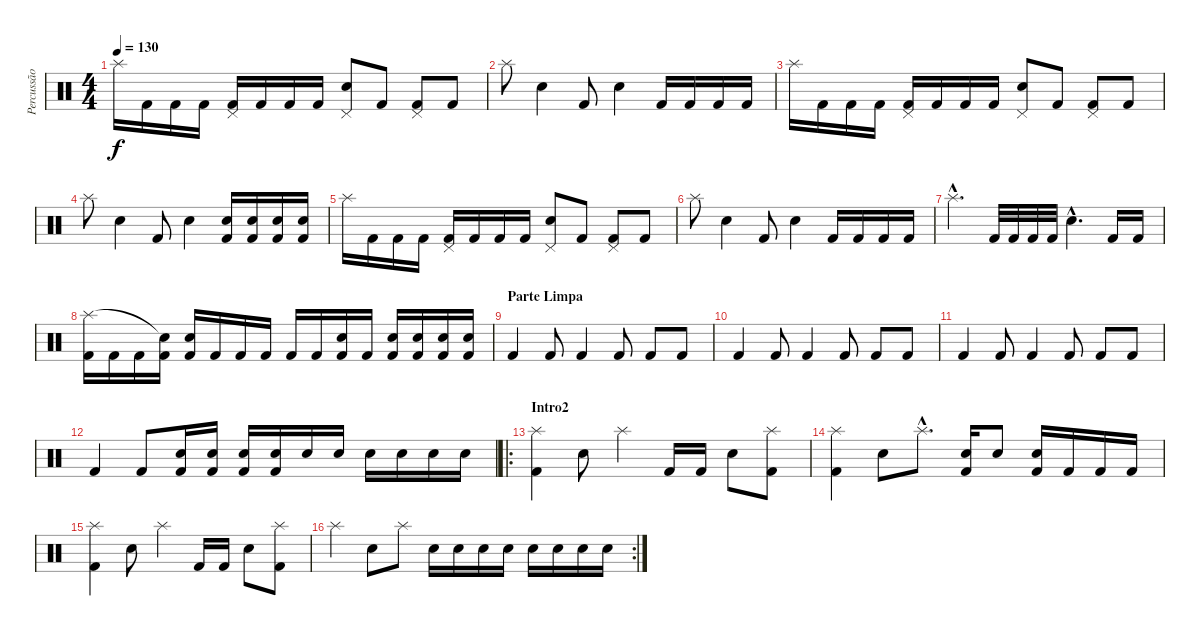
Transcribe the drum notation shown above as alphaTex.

\track ("Percussão" "Percussão") {instrument percussion}
\staff {score}
\articulation defaults
\ts (4 4)
\tempo 130
\clef neutral
\ks c "Splash (hit)".16{dy f} "Kick (hit) 2".16 "Kick (hit) 2".16 "Kick (hit) 2".16
("Kick (hit) 2" "Pedal Hi-Hat (hit)").16 "Kick (hit) 2".16 "Kick (hit) 2".16 "Kick (hit) 2".16 ("Snare (hit) 2" "Pedal Hi-Hat (hit)").8 "Kick (hit) 2".8 ("Kick (hit) 2" "Pedal Hi-Hat (hit)").8 "Kick (hit) 2".8 |
"Splash (hit)".8 "Snare (hit) 2".4 "Kick (hit) 2".8 "Snare (hit) 2".4 "Kick (hit) 2".16 "Kick (hit) 2".16 "Kick (hit) 2".16 "Kick (hit) 2".16 |
"Splash (hit)".16 "Kick (hit) 2".16 "Kick (hit) 2".16 "Kick (hit) 2".16 ("Kick (hit) 2" "Pedal Hi-Hat (hit)").16 "Kick (hit) 2".16 "Kick (hit) 2".16 "Kick (hit) 2".16 ("Snare (hit) 2" "Pedal Hi-Hat (hit)").8 "Kick (hit) 2".8 ("Kick (hit) 2" "Pedal Hi-Hat (hit)").8 "Kick (hit) 2".8 |
"Splash (hit)".8 "Snare (hit) 2".4 "Kick (hit) 2".8 "Snare (hit) 2".4 ("Kick (hit) 2" "Snare (hit) 2").16 ("Kick (hit) 2" "Snare (hit) 2").16 ("Kick (hit) 2" "Snare (hit) 2").16 ("Kick (hit) 2" "Snare (hit) 2").16 |
"Splash (hit)".16 "Kick (hit) 2".16 "Kick (hit) 2".16 "Kick (hit) 2".16 ("Kick (hit) 2" "Pedal Hi-Hat (hit)").16 "Kick (hit) 2".16 "Kick (hit) 2".16 "Kick (hit) 2".16 ("Snare (hit) 2" "Pedal Hi-Hat (hit)").8 "Kick (hit) 2".8 ("Kick (hit) 2" "Pedal Hi-Hat (hit)").8 "Kick (hit) 2".8 |
"Splash (hit)".8 "Snare (hit) 2".4 "Kick (hit) 2".8 "Snare (hit) 2".4 "Kick (hit) 2".16 "Kick (hit) 2".16 "Kick (hit) 2".16 "Kick (hit) 2".16 |
"Splash (hit)"{hac}.4{d} "Kick (hit) 2".32 "Kick (hit) 2".32 "Kick (hit) 2".32 "Kick (hit) 2".32 "Snare (hit) 2"{hac}.4{d} "Kick (hit) 2".16 "Kick (hit) 2".16 |
("Kick (hit) 2" "Splash (hit)").16 "Kick (hit) 2".16 "Kick (hit) 2".16 ("Kick (hit) 2" "Snare (hit)"{t}).16 ("Kick (hit) 2" "Snare (hit) 2").16 "Kick (hit) 2".16 "Kick (hit) 2".16 "Kick (hit) 2".16 "Kick (hit) 2".16 "Kick (hit) 2".16 ("Kick (hit) 2" "Snare (hit) 2").16 "Kick (hit) 2".16 ("Kick (hit) 2" "Snare (hit) 2").16 ("Kick (hit) 2" "Snare (hit) 2").16 ("Kick (hit) 2" "Snare (hit) 2").16 ("Kick (hit) 2" "Snare (hit) 2").16 |
\section ("" "Parte Limpa")
"Kick (hit) 2".4{volume 2} "Kick (hit) 2".8 "Kick (hit) 2".4 "Kick (hit) 2".8 "Kick (hit) 2".8 "Kick (hit) 2".8 |
"Kick (hit) 2".4{volume 2} "Kick (hit) 2".8 "Kick (hit) 2".4 "Kick (hit) 2".8 "Kick (hit) 2".8 "Kick (hit) 2".8 |
"Kick (hit) 2".4{volume 2} "Kick (hit) 2".8 "Kick (hit) 2".4 "Kick (hit) 2".8 "Kick (hit) 2".8 "Kick (hit) 2".8 |
"Kick (hit) 2".4{volume 2} "Kick (hit) 2".8 ("Kick (hit) 2" "Snare (hit) 2").16{volume 13} ("Kick (hit) 2" "Snare (hit) 2").16 ("Kick (hit) 2" "Snare (hit) 2").16 ("Kick (hit) 2" "Snare (hit) 2").16 "Snare (hit) 2".16 "Snare (hit) 2".16 "Snare (hit) 2".16 "Snare (hit) 2".16 "Snare (hit) 2".16 "Snare (hit) 2".16 |
\ro
\section ("" "Intro2")
("Kick (hit) 2" "Splash (hit)").4{volume 13} "Snare (hit) 2".8 "Splash (hit)".4 "Kick (hit) 2".16 "Kick (hit) 2".16 "Snare (hit) 2".8 ("Kick (hit) 2" "Splash (hit)").8 |
("Kick (hit) 2" "Splash (hit)").4 "Snare (hit) 2".8 "Splash (hit)"{hac}.8{d} ("Kick (hit) 2" "Snare (hit) 2").16 "Snare (hit) 2".8 ("Kick (hit) 2" "Snare (hit) 2").16 "Kick (hit) 2".16 "Kick (hit) 2".16 "Kick (hit) 2".16 |
("Kick (hit) 2" "Splash (hit)").4 "Snare (hit) 2".8 "Splash (hit)".4 "Kick (hit) 2".16 "Kick (hit) 2".16 "Snare (hit) 2".8 ("Kick (hit) 2" "Splash (hit)").8 |
\rc 2 "Splash (hit)".4 "Snare (hit) 2".8 "Splash (hit)".8 "Snare (hit) 2".16 "Snare (hit) 2".16 "Snare (hit) 2".16 "Snare (hit) 2".16 "Snare (hit) 2".16 "Snare (hit) 2".16 "Snare (hit) 2".16 "Snare (hit) 2".16
